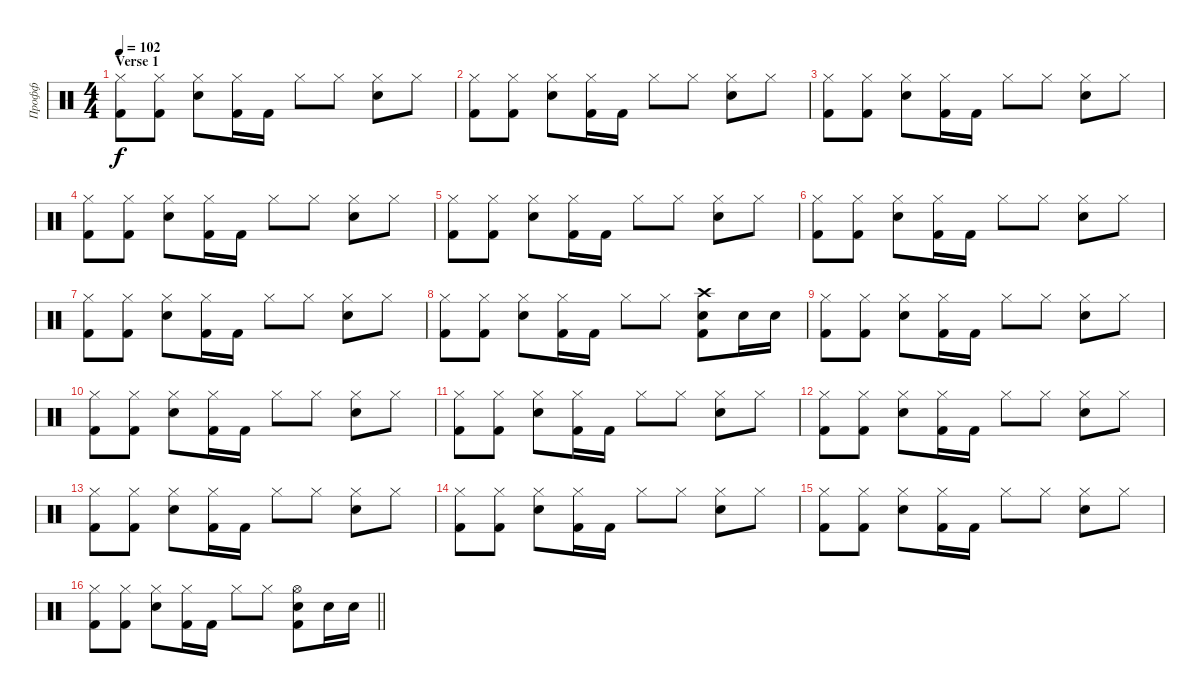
\track ("Профф" "Профф") {instrument percussion}
\staff {score}
\articulation defaults
\ts (4 4)
\section ("" "Verse 1")
\tempo 102
\clef neutral
\ks c
("Hi-Hat (closed)" "Kick (hit) 2").8{dy f} ("Hi-Hat (closed)" "Kick (hit) 2").8 ("Hi-Hat (closed)" "Snare (hit) 2").8 ("Hi-Hat (closed)" "Kick (hit) 2").16 "Kick (hit) 2".16 "Hi-Hat (closed)".8 "Hi-Hat (closed)".8 ("Hi-Hat (closed)" "Snare (hit) 2").8 "Hi-Hat (closed)".8 |
("Hi-Hat (closed)" "Kick (hit) 2").8 ("Hi-Hat (closed)" "Kick (hit) 2").8 ("Hi-Hat (closed)" "Snare (hit) 2").8 ("Hi-Hat (closed)" "Kick (hit) 2").16 "Kick (hit) 2".16 "Hi-Hat (closed)".8 "Hi-Hat (closed)".8 ("Hi-Hat (closed)" "Snare (hit) 2").8 "Hi-Hat (closed)".8 |
("Hi-Hat (closed)" "Kick (hit) 2").8 ("Hi-Hat (closed)" "Kick (hit) 2").8 ("Hi-Hat (closed)" "Snare (hit) 2").8 ("Hi-Hat (closed)" "Kick (hit) 2").16 "Kick (hit) 2".16 "Hi-Hat (closed)".8 "Hi-Hat (closed)".8 ("Hi-Hat (closed)" "Snare (hit) 2").8 "Hi-Hat (closed)".8 |
("Hi-Hat (closed)" "Kick (hit) 2").8 ("Hi-Hat (closed)" "Kick (hit) 2").8 ("Hi-Hat (closed)" "Snare (hit) 2").8 ("Hi-Hat (closed)" "Kick (hit) 2").16 "Kick (hit) 2".16 "Hi-Hat (closed)".8 "Hi-Hat (closed)".8 ("Hi-Hat (closed)" "Snare (hit) 2").8 "Hi-Hat (closed)".8 |
("Hi-Hat (closed)" "Kick (hit) 2").8 ("Hi-Hat (closed)" "Kick (hit) 2").8 ("Hi-Hat (closed)" "Snare (hit) 2").8 ("Hi-Hat (closed)" "Kick (hit) 2").16 "Kick (hit) 2".16 "Hi-Hat (closed)".8 "Hi-Hat (closed)".8 ("Hi-Hat (closed)" "Snare (hit) 2").8 "Hi-Hat (closed)".8 |
("Hi-Hat (closed)" "Kick (hit) 2").8 ("Hi-Hat (closed)" "Kick (hit) 2").8 ("Hi-Hat (closed)" "Snare (hit) 2").8 ("Hi-Hat (closed)" "Kick (hit) 2").16 "Kick (hit) 2".16 "Hi-Hat (closed)".8 "Hi-Hat (closed)".8 ("Hi-Hat (closed)" "Snare (hit) 2").8 "Hi-Hat (closed)".8 |
("Hi-Hat (closed)" "Kick (hit) 2").8 ("Hi-Hat (closed)" "Kick (hit) 2").8 ("Hi-Hat (closed)" "Snare (hit) 2").8 ("Hi-Hat (closed)" "Kick (hit) 2").16 "Kick (hit) 2".16 "Hi-Hat (closed)".8 "Hi-Hat (closed)".8 ("Hi-Hat (closed)" "Snare (hit) 2").8 "Hi-Hat (closed)".8 |
("Hi-Hat (closed)" "Kick (hit) 2").8 ("Hi-Hat (closed)" "Kick (hit) 2").8 ("Hi-Hat (closed)" "Snare (hit) 2").8 ("Hi-Hat (closed)" "Kick (hit) 2").16 "Kick (hit) 2".16 "Hi-Hat (closed)".8 "Hi-Hat (closed)".8 ("Crash high (hit)" "Snare (hit) 2" "Kick (hit) 2").8 "Snare (hit) 2".16 "Snare (hit) 2".16 |
("Hi-Hat (closed)" "Kick (hit) 2").8 ("Hi-Hat (closed)" "Kick (hit) 2").8 ("Hi-Hat (closed)" "Snare (hit) 2").8 ("Hi-Hat (closed)" "Kick (hit) 2").16 "Kick (hit) 2".16 "Hi-Hat (closed)".8 "Hi-Hat (closed)".8 ("Hi-Hat (closed)" "Snare (hit) 2").8 "Hi-Hat (closed)".8 |
("Hi-Hat (closed)" "Kick (hit) 2").8 ("Hi-Hat (closed)" "Kick (hit) 2").8 ("Hi-Hat (closed)" "Snare (hit) 2").8 ("Hi-Hat (closed)" "Kick (hit) 2").16 "Kick (hit) 2".16 "Hi-Hat (closed)".8 "Hi-Hat (closed)".8 ("Hi-Hat (closed)" "Snare (hit) 2").8 "Hi-Hat (closed)".8 |
("Hi-Hat (closed)" "Kick (hit) 2").8 ("Hi-Hat (closed)" "Kick (hit) 2").8 ("Hi-Hat (closed)" "Snare (hit) 2").8 ("Hi-Hat (closed)" "Kick (hit) 2").16 "Kick (hit) 2".16 "Hi-Hat (closed)".8 "Hi-Hat (closed)".8 ("Hi-Hat (closed)" "Snare (hit) 2").8 "Hi-Hat (closed)".8 |
("Hi-Hat (closed)" "Kick (hit) 2").8 ("Hi-Hat (closed)" "Kick (hit) 2").8 ("Hi-Hat (closed)" "Snare (hit) 2").8 ("Hi-Hat (closed)" "Kick (hit) 2").16 "Kick (hit) 2".16 "Hi-Hat (closed)".8 "Hi-Hat (closed)".8 ("Hi-Hat (closed)" "Snare (hit) 2").8 "Hi-Hat (closed)".8 |
("Hi-Hat (closed)" "Kick (hit) 2").8 ("Hi-Hat (closed)" "Kick (hit) 2").8 ("Hi-Hat (closed)" "Snare (hit) 2").8 ("Hi-Hat (closed)" "Kick (hit) 2").16 "Kick (hit) 2".16 "Hi-Hat (closed)".8 "Hi-Hat (closed)".8 ("Hi-Hat (closed)" "Snare (hit) 2").8 "Hi-Hat (closed)".8 |
("Hi-Hat (closed)" "Kick (hit) 2").8 ("Hi-Hat (closed)" "Kick (hit) 2").8 ("Hi-Hat (closed)" "Snare (hit) 2").8 ("Hi-Hat (closed)" "Kick (hit) 2").16 "Kick (hit) 2".16 "Hi-Hat (closed)".8 "Hi-Hat (closed)".8 ("Hi-Hat (closed)" "Snare (hit) 2").8 "Hi-Hat (closed)".8 |
("Hi-Hat (closed)" "Kick (hit) 2").8 ("Hi-Hat (closed)" "Kick (hit) 2").8 ("Hi-Hat (closed)" "Snare (hit) 2").8 ("Hi-Hat (closed)" "Kick (hit) 2").16 "Kick (hit) 2".16 "Hi-Hat (closed)".8 "Hi-Hat (closed)".8 ("Hi-Hat (closed)" "Snare (hit) 2").8 "Hi-Hat (closed)".8 |
\barLineRight lightlight
("Hi-Hat (closed)" "Kick (hit) 2").8 ("Hi-Hat (closed)" "Kick (hit) 2").8 ("Hi-Hat (closed)" "Snare (hit) 2").8 ("Hi-Hat (closed)" "Kick (hit) 2").16 "Kick (hit) 2".16 "Hi-Hat (closed)".8 "Hi-Hat (closed)".8 ("Hi-Hat (open)" "Snare (hit) 2" "Kick (hit) 2").8 "Snare (hit) 2".16 "Snare (hit) 2".16
